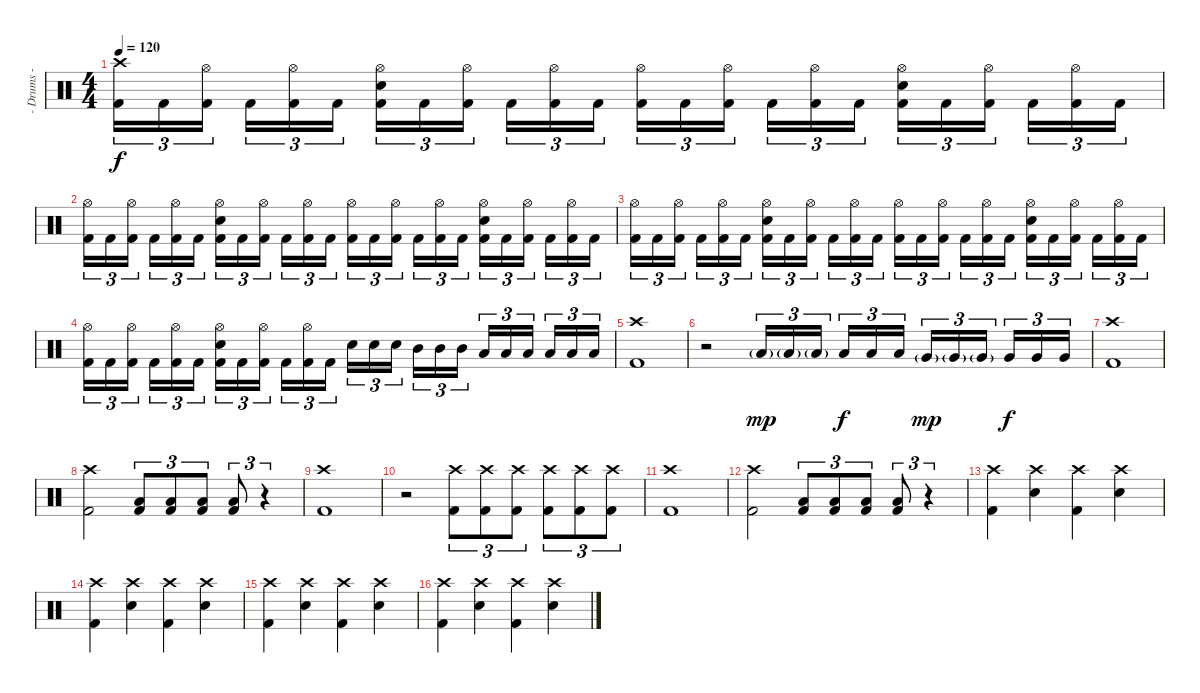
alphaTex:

\track ("- Drums -" "- Drums -") {instrument percussion}
\staff {score}
\articulation defaults
\ts (4 4)
\tempo 120
\clef neutral
\ks c
("Crash high (hit)" "Kick (hit) 2").16{tu (3 2) dy f} "Kick (hit) 2".16{tu (3 2)} ("Hi-Hat (open)" "Kick (hit) 2").16{tu (3 2)} "Kick (hit) 2".16{tu (3 2)} ("Hi-Hat (open)" "Kick (hit) 2").16{tu (3 2)} "Kick (hit) 2".16{tu (3 2)} ("Hi-Hat (open)" "Electric Snare (hit)" "Kick (hit) 2").16{tu (3 2)} "Kick (hit) 2".16{tu (3 2)} ("Hi-Hat (open)" "Kick (hit) 2").16{tu (3 2)} "Kick (hit) 2".16{tu (3 2)} ("Hi-Hat (open)" "Kick (hit) 2").16{tu (3 2)} "Kick (hit) 2".16{tu (3 2)} ("Hi-Hat (open)" "Kick (hit) 2").16{tu (3 2)} "Kick (hit) 2".16{tu (3 2)} ("Hi-Hat (open)" "Kick (hit) 2").16{tu (3 2)} "Kick (hit) 2".16{tu (3 2)} ("Hi-Hat (open)" "Kick (hit) 2").16{tu (3 2)} "Kick (hit) 2".16{tu (3 2)} ("Hi-Hat (open)" "Electric Snare (hit)" "Kick (hit) 2").16{tu (3 2)} "Kick (hit) 2".16{tu (3 2)} ("Hi-Hat (open)" "Kick (hit) 2").16{tu (3 2)} "Kick (hit) 2".16{tu (3 2)} ("Hi-Hat (open)" "Kick (hit) 2").16{tu (3 2)} "Kick (hit) 2".16{tu (3 2)} |
("Hi-Hat (open)" "Kick (hit) 2").16{tu (3 2)} "Kick (hit) 2".16{tu (3 2)} ("Hi-Hat (open)" "Kick (hit) 2").16{tu (3 2)} "Kick (hit) 2".16{tu (3 2)} ("Hi-Hat (open)" "Kick (hit) 2").16{tu (3 2)} "Kick (hit) 2".16{tu (3 2)} ("Hi-Hat (open)" "Electric Snare (hit)" "Kick (hit) 2").16{tu (3 2)} "Kick (hit) 2".16{tu (3 2)} ("Hi-Hat (open)" "Kick (hit) 2").16{tu (3 2)} "Kick (hit) 2".16{tu (3 2)} ("Hi-Hat (open)" "Kick (hit) 2").16{tu (3 2)} "Kick (hit) 2".16{tu (3 2)} ("Hi-Hat (open)" "Kick (hit) 2").16{tu (3 2)} "Kick (hit) 2".16{tu (3 2)} ("Hi-Hat (open)" "Kick (hit) 2").16{tu (3 2)} "Kick (hit) 2".16{tu (3 2)} ("Hi-Hat (open)" "Kick (hit) 2").16{tu (3 2)} "Kick (hit) 2".16{tu (3 2)} ("Hi-Hat (open)" "Electric Snare (hit)" "Kick (hit) 2").16{tu (3 2)} "Kick (hit) 2".16{tu (3 2)} ("Hi-Hat (open)" "Kick (hit) 2").16{tu (3 2)} "Kick (hit) 2".16{tu (3 2)} ("Hi-Hat (open)" "Kick (hit) 2").16{tu (3 2)} "Kick (hit) 2".16{tu (3 2)} |
("Hi-Hat (open)" "Kick (hit) 2").16{tu (3 2)} "Kick (hit) 2".16{tu (3 2)} ("Hi-Hat (open)" "Kick (hit) 2").16{tu (3 2)} "Kick (hit) 2".16{tu (3 2)} ("Hi-Hat (open)" "Kick (hit) 2").16{tu (3 2)} "Kick (hit) 2".16{tu (3 2)} ("Hi-Hat (open)" "Electric Snare (hit)" "Kick (hit) 2").16{tu (3 2)} "Kick (hit) 2".16{tu (3 2)} ("Hi-Hat (open)" "Kick (hit) 2").16{tu (3 2)} "Kick (hit) 2".16{tu (3 2)} ("Hi-Hat (open)" "Kick (hit) 2").16{tu (3 2)} "Kick (hit) 2".16{tu (3 2)} ("Hi-Hat (open)" "Kick (hit) 2").16{tu (3 2)} "Kick (hit) 2".16{tu (3 2)} ("Hi-Hat (open)" "Kick (hit) 2").16{tu (3 2)} "Kick (hit) 2".16{tu (3 2)} ("Hi-Hat (open)" "Kick (hit) 2").16{tu (3 2)} "Kick (hit) 2".16{tu (3 2)} ("Hi-Hat (open)" "Electric Snare (hit)" "Kick (hit) 2").16{tu (3 2)} "Kick (hit) 2".16{tu (3 2)} ("Hi-Hat (open)" "Kick (hit) 2").16{tu (3 2)} "Kick (hit) 2".16{tu (3 2)} ("Hi-Hat (open)" "Kick (hit) 2").16{tu (3 2)} "Kick (hit) 2".16{tu (3 2)} |
("Hi-Hat (open)" "Kick (hit) 2").16{tu (3 2)} "Kick (hit) 2".16{tu (3 2)} ("Hi-Hat (open)" "Kick (hit) 2").16{tu (3 2)} "Kick (hit) 2".16{tu (3 2)} ("Hi-Hat (open)" "Kick (hit) 2").16{tu (3 2)} "Kick (hit) 2".16{tu (3 2)} ("Hi-Hat (open)" "Electric Snare (hit)" "Kick (hit) 2").16{tu (3 2)} "Kick (hit) 2".16{tu (3 2)} ("Hi-Hat (open)" "Kick (hit) 2").16{tu (3 2)} "Kick (hit) 2".16{tu (3 2)} ("Hi-Hat (open)" "Kick (hit) 2").16{tu (3 2)} "Kick (hit) 2".16{tu (3 2)} "Electric Snare (hit)".16{tu (3 2)} "Electric Snare (hit)".16{tu (3 2)} "Electric Snare (hit)".16{tu (3 2)} "Mid Tom (hit)".16{tu (3 2)} "Mid Tom (hit)".16{tu (3 2)} "Mid Tom (hit)".16{tu (3 2)} "Low Tom (hit)".16{tu (3 2)} "Low Tom (hit)".16{tu (3 2)} "Low Tom (hit)".16{tu (3 2)} "Low Floor Tom (hit)".16{tu (3 2)} "Low Floor Tom (hit)".16{tu (3 2)} "Low Floor Tom (hit)".16{tu (3 2)} |
("Crash high (hit)" "Kick (hit) 2").1 |
r.2 "Low Tom (hit)"{g}.16{tu (3 2) dy mp} "Low Tom (hit)"{g}.16{tu (3 2)} "Low Tom (hit)"{g}.16{tu (3 2)} "Low Tom (hit)".16{tu (3 2) dy f} "Low Tom (hit)".16{tu (3 2)} "Low Tom (hit)".16{tu (3 2)} "Very Low Tom (hit)"{g}.16{tu (3 2) dy mp} "Very Low Tom (hit)"{g}.16{tu (3 2)} "Very Low Tom (hit)"{g}.16{tu (3 2)} "Very Low Tom (hit)".16{tu (3 2) dy f} "Very Low Tom (hit)".16{tu (3 2)} "Very Low Tom (hit)".16{tu (3 2)} |
("Crash high (hit)" "Kick (hit) 2").1 |
("Crash high (hit)" "Kick (hit) 2").2 ("Low Tom (hit)" "Kick (hit) 2").8{tu (3 2)} ("Low Tom (hit)" "Kick (hit) 2").8{tu (3 2)} ("Low Tom (hit)" "Kick (hit) 2").8{tu (3 2)} ("Low Tom (hit)" "Kick (hit) 2").8{tu (3 2)} r.4{tu (3 2)} |
("Crash high (hit)" "Kick (hit) 2").1 |
r.2 ("Crash high (hit)" "Kick (hit) 2").8{tu (3 2)} ("Crash high (hit)" "Kick (hit) 2").8{tu (3 2)} ("Crash high (hit)" "Kick (hit) 2").8{tu (3 2)} ("Crash high (hit)" "Kick (hit) 2").8{tu (3 2)} ("Crash high (hit)" "Kick (hit) 2").8{tu (3 2)} ("Crash high (hit)" "Kick (hit) 2").8{tu (3 2)} |
("Crash high (hit)" "Kick (hit) 2").1 |
("Crash high (hit)" "Kick (hit) 2").2 ("Low Tom (hit)" "Kick (hit) 2").8{tu (3 2)} ("Low Tom (hit)" "Kick (hit) 2").8{tu (3 2)} ("Low Tom (hit)" "Kick (hit) 2").8{tu (3 2)} ("Low Tom (hit)" "Kick (hit) 2").8{tu (3 2)} r.4{tu (3 2)} |
("Crash high (hit)" "Kick (hit) 2").4 ("Crash high (hit)" "Electric Snare (hit)").4 ("Crash high (hit)" "Kick (hit) 2").4 ("Crash high (hit)" "Electric Snare (hit)").4 |
("Crash high (hit)" "Kick (hit) 2").4 ("Crash high (hit)" "Electric Snare (hit)").4 ("Crash high (hit)" "Kick (hit) 2").4 ("Crash high (hit)" "Electric Snare (hit)").4 |
("Crash high (hit)" "Kick (hit) 2").4 ("Crash high (hit)" "Electric Snare (hit)").4 ("Crash high (hit)" "Kick (hit) 2").4 ("Crash high (hit)" "Electric Snare (hit)").4 |
("Crash high (hit)" "Kick (hit) 2").4 ("Crash high (hit)" "Electric Snare (hit)").4 ("Crash high (hit)" "Kick (hit) 2").4 ("Crash high (hit)" "Electric Snare (hit)").4
